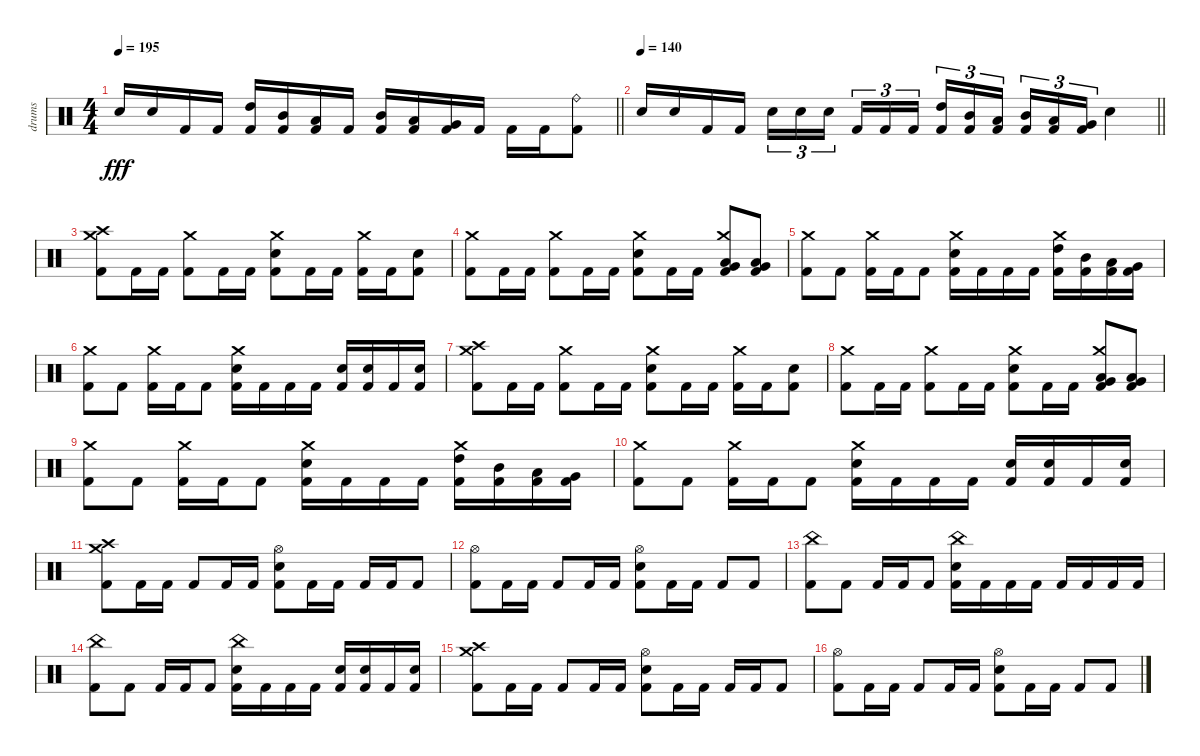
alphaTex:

\track ("drums" "drums") {instrument percussion}
\staff {score}
\articulation defaults
\ts (4 4)
\tempo 195
\clef neutral
\barLineRight lightlight
\ks c "Electric Snare (hit)".16{dy fff} "Electric Snare (hit)".16 "Kick (hit) 2".16 "Kick (hit) 2".16
("High Tom (hit)" "Kick (hit) 2").16 ("Mid Tom (hit)" "Kick (hit) 2").16 ("Low Tom (hit)" "Kick (hit) 2").16 "Kick (hit) 2".16 ("Mid Tom (hit)" "Kick (hit) 2").16 ("Low Tom (hit)" "Kick (hit) 2").16 ("Very Low Tom (hit)" "Kick (hit) 2").16 "Kick (hit) 2".16 "Kick (hit) 2".16 "Kick (hit) 2".16 ("Ride (bell)" "Kick (hit) 2").8 |
\section ("" "")
\tempo 140
\barLineRight lightlight "Electric Snare (hit)".16 "Electric Snare (hit)".16 "Kick (hit) 2".16 "Kick (hit) 2".16 "Electric Snare (hit)".16{tu (3 2)} "Electric Snare (hit)".16{tu (3 2)} "Electric Snare (hit)".16{tu (3 2) beam splitsecondary} "Kick (hit) 2".16{tu (3 2)} "Kick (hit) 2".16{tu (3 2)} "Kick (hit) 2".16{tu (3 2)}
("High Tom (hit)" "Kick (hit) 2").16{tu (3 2)} ("Mid Tom (hit)" "Kick (hit) 2").16{tu (3 2)} ("Low Tom (hit)" "Kick (hit) 2").16{tu (3 2) beam splitsecondary} ("Mid Tom (hit)" "Kick (hit) 2").16{tu (3 2)} ("Low Tom (hit)" "Kick (hit) 2").16{tu (3 2)} ("Very Low Tom (hit)" "Kick (hit) 2").16{tu (3 2)} "Electric Snare (hit)".4 |
\section ("" "")
("Crash medium (hit)" "Crash high (hit)" "Kick (hit) 2").8 "Kick (hit) 2".16 "Kick (hit) 2".16 ("Crash medium (hit)" "Kick (hit) 2").8 "Kick (hit) 2".16 "Kick (hit) 2".16 ("Crash medium (hit)" "Electric Snare (hit)" "Kick (hit) 2").8 "Kick (hit) 2".16 "Kick (hit) 2".16 ("Crash medium (hit)" "Kick (hit) 2").16 "Kick (hit) 2".16 ("Electric Snare (hit)" "Kick (hit) 2").8 |
("Crash medium (hit)" "Kick (hit) 2").8 "Kick (hit) 2".16 "Kick (hit) 2".16 ("Crash medium (hit)" "Kick (hit) 2").8 "Kick (hit) 2".16 "Kick (hit) 2".16 ("Crash medium (hit)" "Electric Snare (hit)" "Kick (hit) 2").8 "Kick (hit) 2".16 "Kick (hit) 2".16 ("Crash medium (hit)" "Very Low Tom (hit)" "Low Floor Tom (hit)" "Kick (hit) 2").8 ("Very Low Tom (hit)" "Low Floor Tom (hit)" "Kick (hit) 2").8 |
("Crash medium (hit)" "Kick (hit) 2").8 "Kick (hit) 2".8 ("Crash medium (hit)" "Kick (hit) 2").16 "Kick (hit) 2".16 "Kick (hit) 2".8 ("Crash medium (hit)" "Electric Snare (hit)" "Kick (hit) 2").16 "Kick (hit) 2".16 "Kick (hit) 2".16 "Kick (hit) 2".16 ("Crash medium (hit)" "High Tom (hit)" "Kick (hit) 2").16 ("Mid Tom (hit)" "Kick (hit) 2").16 ("Low Tom (hit)" "Kick (hit) 2").16 ("Very Low Tom (hit)" "Kick (hit) 2").16 |
("Crash medium (hit)" "Kick (hit) 2").8 "Kick (hit) 2".8 ("Crash medium (hit)" "Kick (hit) 2").16 "Kick (hit) 2".16 "Kick (hit) 2".8 ("Crash medium (hit)" "Electric Snare (hit)" "Kick (hit) 2").16 "Kick (hit) 2".16 "Kick (hit) 2".16 "Kick (hit) 2".16 ("Electric Snare (hit)" "Kick (hit) 2").16 ("Electric Snare (hit)" "Kick (hit) 2").16 "Kick (hit) 2".16 ("Electric Snare (hit)" "Kick (hit) 2").16 |
("Crash medium (hit)" "Crash high (hit)" "Kick (hit) 2").8 "Kick (hit) 2".16 "Kick (hit) 2".16 ("Crash medium (hit)" "Kick (hit) 2").8 "Kick (hit) 2".16 "Kick (hit) 2".16 ("Crash medium (hit)" "Electric Snare (hit)" "Kick (hit) 2").8 "Kick (hit) 2".16 "Kick (hit) 2".16 ("Crash medium (hit)" "Kick (hit) 2").16 "Kick (hit) 2".16 ("Electric Snare (hit)" "Kick (hit) 2").8 |
("Crash medium (hit)" "Kick (hit) 2").8 "Kick (hit) 2".16 "Kick (hit) 2".16 ("Crash medium (hit)" "Kick (hit) 2").8 "Kick (hit) 2".16 "Kick (hit) 2".16 ("Crash medium (hit)" "Electric Snare (hit)" "Kick (hit) 2").8 "Kick (hit) 2".16 "Kick (hit) 2".16 ("Crash medium (hit)" "Very Low Tom (hit)" "Low Floor Tom (hit)" "Kick (hit) 2").8 ("Very Low Tom (hit)" "Low Floor Tom (hit)" "Kick (hit) 2").8 |
("Crash medium (hit)" "Kick (hit) 2").8 "Kick (hit) 2".8 ("Crash medium (hit)" "Kick (hit) 2").16 "Kick (hit) 2".16 "Kick (hit) 2".8 ("Crash medium (hit)" "Electric Snare (hit)" "Kick (hit) 2").16 "Kick (hit) 2".16 "Kick (hit) 2".16 "Kick (hit) 2".16 ("Crash medium (hit)" "High Tom (hit)" "Kick (hit) 2").16 ("Mid Tom (hit)" "Kick (hit) 2").16 ("Low Tom (hit)" "Kick (hit) 2").16 ("Very Low Tom (hit)" "Kick (hit) 2").16 |
("Crash medium (hit)" "Kick (hit) 2").8 "Kick (hit) 2".8 ("Crash medium (hit)" "Kick (hit) 2").16 "Kick (hit) 2".16 "Kick (hit) 2".8 ("Crash medium (hit)" "Electric Snare (hit)" "Kick (hit) 2").16 "Kick (hit) 2".16 "Kick (hit) 2".16 "Kick (hit) 2".16 ("Electric Snare (hit)" "Kick (hit) 2").16 ("Electric Snare (hit)" "Kick (hit) 2").16 "Kick (hit) 2".16 ("Electric Snare (hit)" "Kick (hit) 2").16 |
("Crash medium (hit)" "Crash high (hit)" "Kick (hit) 2").8 "Kick (hit) 2".16 "Kick (hit) 2".16 "Kick (hit) 2".8 "Kick (hit) 2".16 "Kick (hit) 2".16 ("Hi-Hat (open)" "Electric Snare (hit)" "Kick (hit) 2").8 "Kick (hit) 2".16 "Kick (hit) 2".16 "Kick (hit) 2".16 "Kick (hit) 2".16 "Kick (hit) 2".8 |
("Hi-Hat (open)" "Kick (hit) 2").8 "Kick (hit) 2".16 "Kick (hit) 2".16 "Kick (hit) 2".8 "Kick (hit) 2".16 "Kick (hit) 2".16 ("Hi-Hat (open)" "Electric Snare (hit)" "Kick (hit) 2").8 "Kick (hit) 2".16 "Kick (hit) 2".16 "Kick (hit) 2".8 "Kick (hit) 2".8 |
("China (hit)" "Kick (hit) 2").8 "Kick (hit) 2".8 "Kick (hit) 2".16 "Kick (hit) 2".16 "Kick (hit) 2".8 ("China (hit)" "Electric Snare (hit)" "Kick (hit) 2").16 "Kick (hit) 2".16 "Kick (hit) 2".16 "Kick (hit) 2".16 "Kick (hit) 2".16 "Kick (hit) 2".16 "Kick (hit) 2".16 "Kick (hit) 2".16 |
("China (hit)" "Kick (hit) 2").8 "Kick (hit) 2".8 "Kick (hit) 2".16 "Kick (hit) 2".16 "Kick (hit) 2".8 ("China (hit)" "Electric Snare (hit)" "Kick (hit) 2").16 "Kick (hit) 2".16 "Kick (hit) 2".16 "Kick (hit) 2".16 ("Electric Snare (hit)" "Kick (hit) 2").16 ("Electric Snare (hit)" "Kick (hit) 2").16 "Kick (hit) 2".16 ("Electric Snare (hit)" "Kick (hit) 2").16 |
("Crash medium (hit)" "Crash high (hit)" "Kick (hit) 2").8 "Kick (hit) 2".16 "Kick (hit) 2".16 "Kick (hit) 2".8 "Kick (hit) 2".16 "Kick (hit) 2".16 ("Hi-Hat (open)" "Electric Snare (hit)" "Kick (hit) 2").8 "Kick (hit) 2".16 "Kick (hit) 2".16 "Kick (hit) 2".16 "Kick (hit) 2".16 "Kick (hit) 2".8 |
("Hi-Hat (open)" "Kick (hit) 2").8 "Kick (hit) 2".16 "Kick (hit) 2".16 "Kick (hit) 2".8 "Kick (hit) 2".16 "Kick (hit) 2".16 ("Hi-Hat (open)" "Electric Snare (hit)" "Kick (hit) 2").8 "Kick (hit) 2".16 "Kick (hit) 2".16 "Kick (hit) 2".8 "Kick (hit) 2".8
